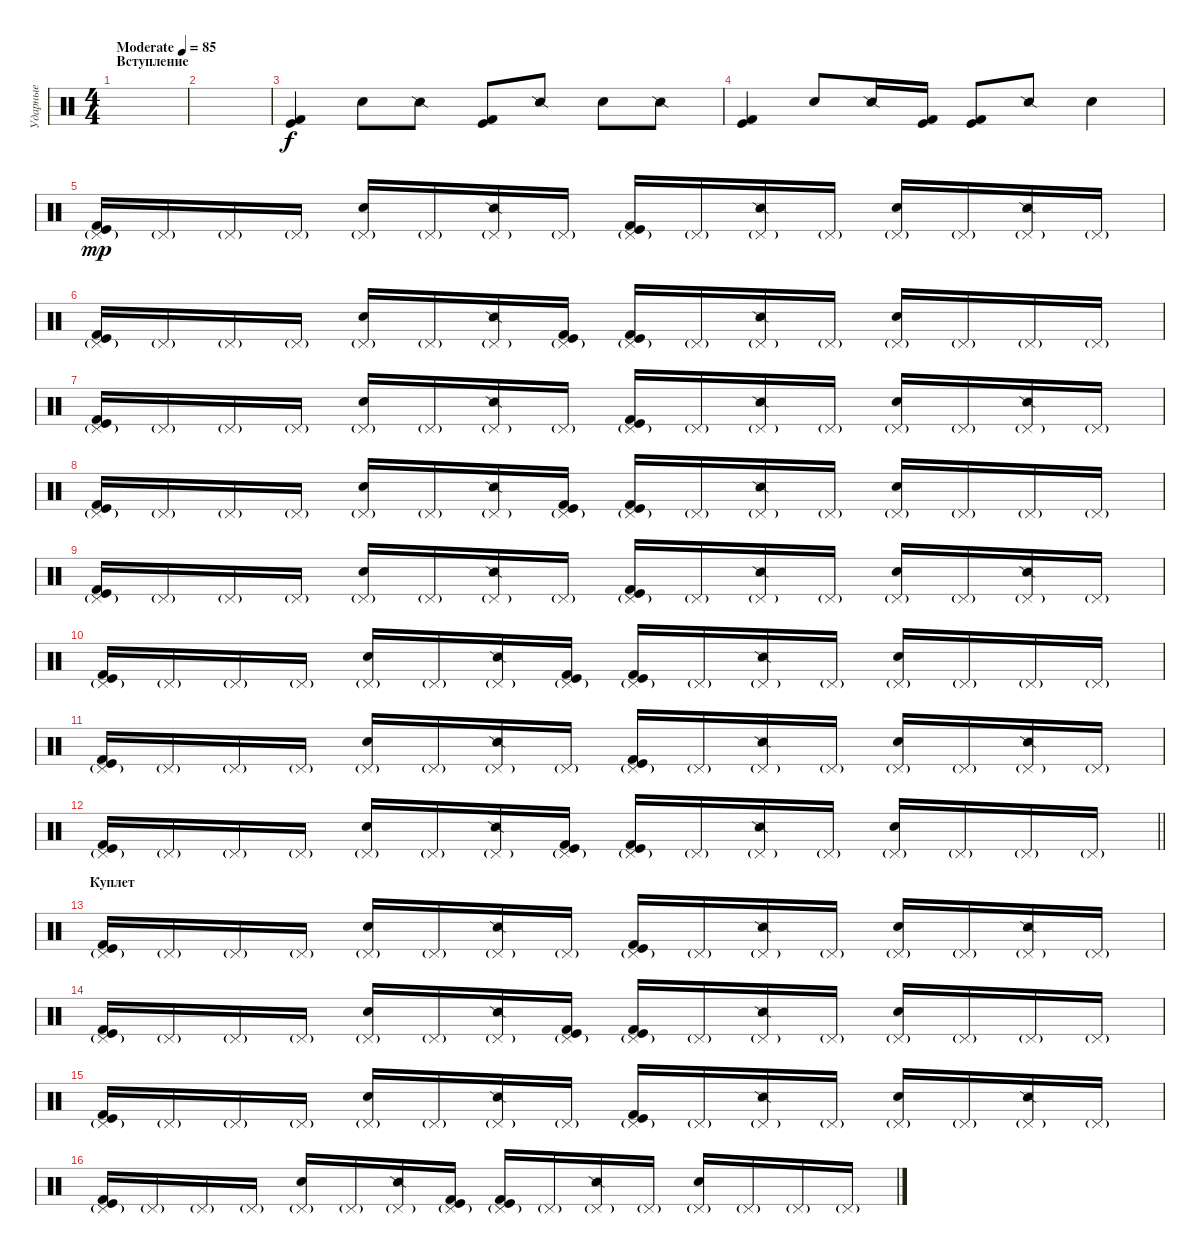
\track ("Ударные" "Ударные") {instrument percussion}
\staff {score}
\articulation defaults
\ts (4 4)
\section ("" "Вступление")
\tempo (85 "Moderate")
\clef neutral
\ks c
|
|
("Kick (hit) 2" "Kick (hit)").4 "Electric Snare (hit)".8 "Snare (side stick) 2".8 ("Kick (hit) 2" "Kick (hit)").8 "Snare (side stick) 2".8 "Electric Snare (hit)".8 "Snare (side stick) 2".8 |
("Kick (hit) 2" "Kick (hit)").4 "Electric Snare (hit)".8 "Snare (side stick) 2".16 ("Kick (hit) 2" "Kick (hit)").16 ("Kick (hit) 2" "Kick (hit)").8 "Snare (side stick) 2".8 "Electric Snare (hit)".4 |
("Pedal Hi-Hat (hit)"{g} "Kick (hit) 2" "Kick (hit)").16{dy mp} "Pedal Hi-Hat (hit)"{g}.16 "Pedal Hi-Hat (hit)"{g}.16 "Pedal Hi-Hat (hit)"{g}.16 ("Pedal Hi-Hat (hit)"{g} "Electric Snare (hit)").16 "Pedal Hi-Hat (hit)"{g}.16 ("Pedal Hi-Hat (hit)"{g} "Snare (side stick) 2").16 "Pedal Hi-Hat (hit)"{g}.16 ("Pedal Hi-Hat (hit)"{g} "Kick (hit) 2" "Kick (hit)").16 "Pedal Hi-Hat (hit)"{g}.16 ("Pedal Hi-Hat (hit)"{g} "Snare (side stick) 2").16 "Pedal Hi-Hat (hit)"{g}.16 ("Pedal Hi-Hat (hit)"{g} "Electric Snare (hit)").16 "Pedal Hi-Hat (hit)"{g}.16 ("Pedal Hi-Hat (hit)"{g} "Snare (side stick) 2").16 "Pedal Hi-Hat (hit)"{g}.16 |
("Pedal Hi-Hat (hit)"{g} "Kick (hit) 2" "Kick (hit)").16 "Pedal Hi-Hat (hit)"{g}.16 "Pedal Hi-Hat (hit)"{g}.16 "Pedal Hi-Hat (hit)"{g}.16 ("Pedal Hi-Hat (hit)"{g} "Electric Snare (hit)").16 "Pedal Hi-Hat (hit)"{g}.16 ("Pedal Hi-Hat (hit)"{g} "Snare (side stick) 2").16 ("Pedal Hi-Hat (hit)"{g} "Kick (hit) 2" "Kick (hit)").16 ("Pedal Hi-Hat (hit)"{g} "Kick (hit) 2" "Kick (hit)").16 "Pedal Hi-Hat (hit)"{g}.16 ("Pedal Hi-Hat (hit)"{g} "Snare (side stick) 2").16 "Pedal Hi-Hat (hit)"{g}.16 ("Pedal Hi-Hat (hit)"{g} "Electric Snare (hit)").16 "Pedal Hi-Hat (hit)"{g}.16 "Pedal Hi-Hat (hit)"{g}.16 "Pedal Hi-Hat (hit)"{g}.16 |
("Pedal Hi-Hat (hit)"{g} "Kick (hit) 2" "Kick (hit)").16 "Pedal Hi-Hat (hit)"{g}.16 "Pedal Hi-Hat (hit)"{g}.16 "Pedal Hi-Hat (hit)"{g}.16 ("Pedal Hi-Hat (hit)"{g} "Electric Snare (hit)").16 "Pedal Hi-Hat (hit)"{g}.16 ("Pedal Hi-Hat (hit)"{g} "Snare (side stick) 2").16 "Pedal Hi-Hat (hit)"{g}.16 ("Pedal Hi-Hat (hit)"{g} "Kick (hit) 2" "Kick (hit)").16 "Pedal Hi-Hat (hit)"{g}.16 ("Pedal Hi-Hat (hit)"{g} "Snare (side stick) 2").16 "Pedal Hi-Hat (hit)"{g}.16 ("Pedal Hi-Hat (hit)"{g} "Electric Snare (hit)").16 "Pedal Hi-Hat (hit)"{g}.16 ("Pedal Hi-Hat (hit)"{g} "Snare (side stick) 2").16 "Pedal Hi-Hat (hit)"{g}.16 |
("Pedal Hi-Hat (hit)"{g} "Kick (hit) 2" "Kick (hit)").16 "Pedal Hi-Hat (hit)"{g}.16 "Pedal Hi-Hat (hit)"{g}.16 "Pedal Hi-Hat (hit)"{g}.16 ("Pedal Hi-Hat (hit)"{g} "Electric Snare (hit)").16 "Pedal Hi-Hat (hit)"{g}.16 ("Pedal Hi-Hat (hit)"{g} "Snare (side stick) 2").16 ("Pedal Hi-Hat (hit)"{g} "Kick (hit) 2" "Kick (hit)").16 ("Pedal Hi-Hat (hit)"{g} "Kick (hit) 2" "Kick (hit)").16 "Pedal Hi-Hat (hit)"{g}.16 ("Pedal Hi-Hat (hit)"{g} "Snare (side stick) 2").16 "Pedal Hi-Hat (hit)"{g}.16 ("Pedal Hi-Hat (hit)"{g} "Electric Snare (hit)").16 "Pedal Hi-Hat (hit)"{g}.16 "Pedal Hi-Hat (hit)"{g}.16 "Pedal Hi-Hat (hit)"{g}.16 |
("Pedal Hi-Hat (hit)"{g} "Kick (hit) 2" "Kick (hit)").16 "Pedal Hi-Hat (hit)"{g}.16 "Pedal Hi-Hat (hit)"{g}.16 "Pedal Hi-Hat (hit)"{g}.16 ("Pedal Hi-Hat (hit)"{g} "Electric Snare (hit)").16 "Pedal Hi-Hat (hit)"{g}.16 ("Pedal Hi-Hat (hit)"{g} "Snare (side stick) 2").16 "Pedal Hi-Hat (hit)"{g}.16 ("Pedal Hi-Hat (hit)"{g} "Kick (hit) 2" "Kick (hit)").16 "Pedal Hi-Hat (hit)"{g}.16 ("Pedal Hi-Hat (hit)"{g} "Snare (side stick) 2").16 "Pedal Hi-Hat (hit)"{g}.16 ("Pedal Hi-Hat (hit)"{g} "Electric Snare (hit)").16 "Pedal Hi-Hat (hit)"{g}.16 ("Pedal Hi-Hat (hit)"{g} "Snare (side stick) 2").16 "Pedal Hi-Hat (hit)"{g}.16 |
("Pedal Hi-Hat (hit)"{g} "Kick (hit) 2" "Kick (hit)").16 "Pedal Hi-Hat (hit)"{g}.16 "Pedal Hi-Hat (hit)"{g}.16 "Pedal Hi-Hat (hit)"{g}.16 ("Pedal Hi-Hat (hit)"{g} "Electric Snare (hit)").16 "Pedal Hi-Hat (hit)"{g}.16 ("Pedal Hi-Hat (hit)"{g} "Snare (side stick) 2").16 ("Pedal Hi-Hat (hit)"{g} "Kick (hit) 2" "Kick (hit)").16 ("Pedal Hi-Hat (hit)"{g} "Kick (hit) 2" "Kick (hit)").16 "Pedal Hi-Hat (hit)"{g}.16 ("Pedal Hi-Hat (hit)"{g} "Snare (side stick) 2").16 "Pedal Hi-Hat (hit)"{g}.16 ("Pedal Hi-Hat (hit)"{g} "Electric Snare (hit)").16 "Pedal Hi-Hat (hit)"{g}.16 "Pedal Hi-Hat (hit)"{g}.16 "Pedal Hi-Hat (hit)"{g}.16 |
("Pedal Hi-Hat (hit)"{g} "Kick (hit) 2" "Kick (hit)").16 "Pedal Hi-Hat (hit)"{g}.16 "Pedal Hi-Hat (hit)"{g}.16 "Pedal Hi-Hat (hit)"{g}.16 ("Pedal Hi-Hat (hit)"{g} "Electric Snare (hit)").16 "Pedal Hi-Hat (hit)"{g}.16 ("Pedal Hi-Hat (hit)"{g} "Snare (side stick) 2").16 "Pedal Hi-Hat (hit)"{g}.16 ("Pedal Hi-Hat (hit)"{g} "Kick (hit) 2" "Kick (hit)").16 "Pedal Hi-Hat (hit)"{g}.16 ("Pedal Hi-Hat (hit)"{g} "Snare (side stick) 2").16 "Pedal Hi-Hat (hit)"{g}.16 ("Pedal Hi-Hat (hit)"{g} "Electric Snare (hit)").16 "Pedal Hi-Hat (hit)"{g}.16 ("Pedal Hi-Hat (hit)"{g} "Snare (side stick) 2").16 "Pedal Hi-Hat (hit)"{g}.16 |
\barLineRight lightlight
("Pedal Hi-Hat (hit)"{g} "Kick (hit) 2" "Kick (hit)").16 "Pedal Hi-Hat (hit)"{g}.16 "Pedal Hi-Hat (hit)"{g}.16 "Pedal Hi-Hat (hit)"{g}.16 ("Pedal Hi-Hat (hit)"{g} "Electric Snare (hit)").16 "Pedal Hi-Hat (hit)"{g}.16 ("Pedal Hi-Hat (hit)"{g} "Snare (side stick) 2").16 ("Pedal Hi-Hat (hit)"{g} "Kick (hit) 2" "Kick (hit)").16 ("Pedal Hi-Hat (hit)"{g} "Kick (hit) 2" "Kick (hit)").16 "Pedal Hi-Hat (hit)"{g}.16 ("Pedal Hi-Hat (hit)"{g} "Snare (side stick) 2").16 "Pedal Hi-Hat (hit)"{g}.16 ("Pedal Hi-Hat (hit)"{g} "Electric Snare (hit)").16 "Pedal Hi-Hat (hit)"{g}.16 "Pedal Hi-Hat (hit)"{g}.16 "Pedal Hi-Hat (hit)"{g}.16 |
\section ("" "Куплет")
("Pedal Hi-Hat (hit)"{g} "Kick (hit) 2" "Kick (hit)").16 "Pedal Hi-Hat (hit)"{g}.16 "Pedal Hi-Hat (hit)"{g}.16 "Pedal Hi-Hat (hit)"{g}.16 ("Pedal Hi-Hat (hit)"{g} "Electric Snare (hit)").16 "Pedal Hi-Hat (hit)"{g}.16 ("Pedal Hi-Hat (hit)"{g} "Snare (side stick) 2").16 "Pedal Hi-Hat (hit)"{g}.16 ("Pedal Hi-Hat (hit)"{g} "Kick (hit) 2" "Kick (hit)").16 "Pedal Hi-Hat (hit)"{g}.16 ("Pedal Hi-Hat (hit)"{g} "Snare (side stick) 2").16 "Pedal Hi-Hat (hit)"{g}.16 ("Pedal Hi-Hat (hit)"{g} "Electric Snare (hit)").16 "Pedal Hi-Hat (hit)"{g}.16 ("Pedal Hi-Hat (hit)"{g} "Snare (side stick) 2").16 "Pedal Hi-Hat (hit)"{g}.16 |
("Pedal Hi-Hat (hit)"{g} "Kick (hit) 2" "Kick (hit)").16 "Pedal Hi-Hat (hit)"{g}.16 "Pedal Hi-Hat (hit)"{g}.16 "Pedal Hi-Hat (hit)"{g}.16 ("Pedal Hi-Hat (hit)"{g} "Electric Snare (hit)").16 "Pedal Hi-Hat (hit)"{g}.16 ("Pedal Hi-Hat (hit)"{g} "Snare (side stick) 2").16 ("Pedal Hi-Hat (hit)"{g} "Kick (hit) 2" "Kick (hit)").16 ("Pedal Hi-Hat (hit)"{g} "Kick (hit) 2" "Kick (hit)").16 "Pedal Hi-Hat (hit)"{g}.16 ("Pedal Hi-Hat (hit)"{g} "Snare (side stick) 2").16 "Pedal Hi-Hat (hit)"{g}.16 ("Pedal Hi-Hat (hit)"{g} "Electric Snare (hit)").16 "Pedal Hi-Hat (hit)"{g}.16 "Pedal Hi-Hat (hit)"{g}.16 "Pedal Hi-Hat (hit)"{g}.16 |
("Pedal Hi-Hat (hit)"{g} "Kick (hit) 2" "Kick (hit)").16 "Pedal Hi-Hat (hit)"{g}.16 "Pedal Hi-Hat (hit)"{g}.16 "Pedal Hi-Hat (hit)"{g}.16 ("Pedal Hi-Hat (hit)"{g} "Electric Snare (hit)").16 "Pedal Hi-Hat (hit)"{g}.16 ("Pedal Hi-Hat (hit)"{g} "Snare (side stick) 2").16 "Pedal Hi-Hat (hit)"{g}.16 ("Pedal Hi-Hat (hit)"{g} "Kick (hit) 2" "Kick (hit)").16 "Pedal Hi-Hat (hit)"{g}.16 ("Pedal Hi-Hat (hit)"{g} "Snare (side stick) 2").16 "Pedal Hi-Hat (hit)"{g}.16 ("Pedal Hi-Hat (hit)"{g} "Electric Snare (hit)").16 "Pedal Hi-Hat (hit)"{g}.16 ("Pedal Hi-Hat (hit)"{g} "Snare (side stick) 2").16 "Pedal Hi-Hat (hit)"{g}.16 |
("Pedal Hi-Hat (hit)"{g} "Kick (hit) 2" "Kick (hit)").16 "Pedal Hi-Hat (hit)"{g}.16 "Pedal Hi-Hat (hit)"{g}.16 "Pedal Hi-Hat (hit)"{g}.16 ("Pedal Hi-Hat (hit)"{g} "Electric Snare (hit)").16 "Pedal Hi-Hat (hit)"{g}.16 ("Pedal Hi-Hat (hit)"{g} "Snare (side stick) 2").16 ("Pedal Hi-Hat (hit)"{g} "Kick (hit) 2" "Kick (hit)").16 ("Pedal Hi-Hat (hit)"{g} "Kick (hit) 2" "Kick (hit)").16 "Pedal Hi-Hat (hit)"{g}.16 ("Pedal Hi-Hat (hit)"{g} "Snare (side stick) 2").16 "Pedal Hi-Hat (hit)"{g}.16 ("Pedal Hi-Hat (hit)"{g} "Electric Snare (hit)").16 "Pedal Hi-Hat (hit)"{g}.16 "Pedal Hi-Hat (hit)"{g}.16 "Pedal Hi-Hat (hit)"{g}.16
